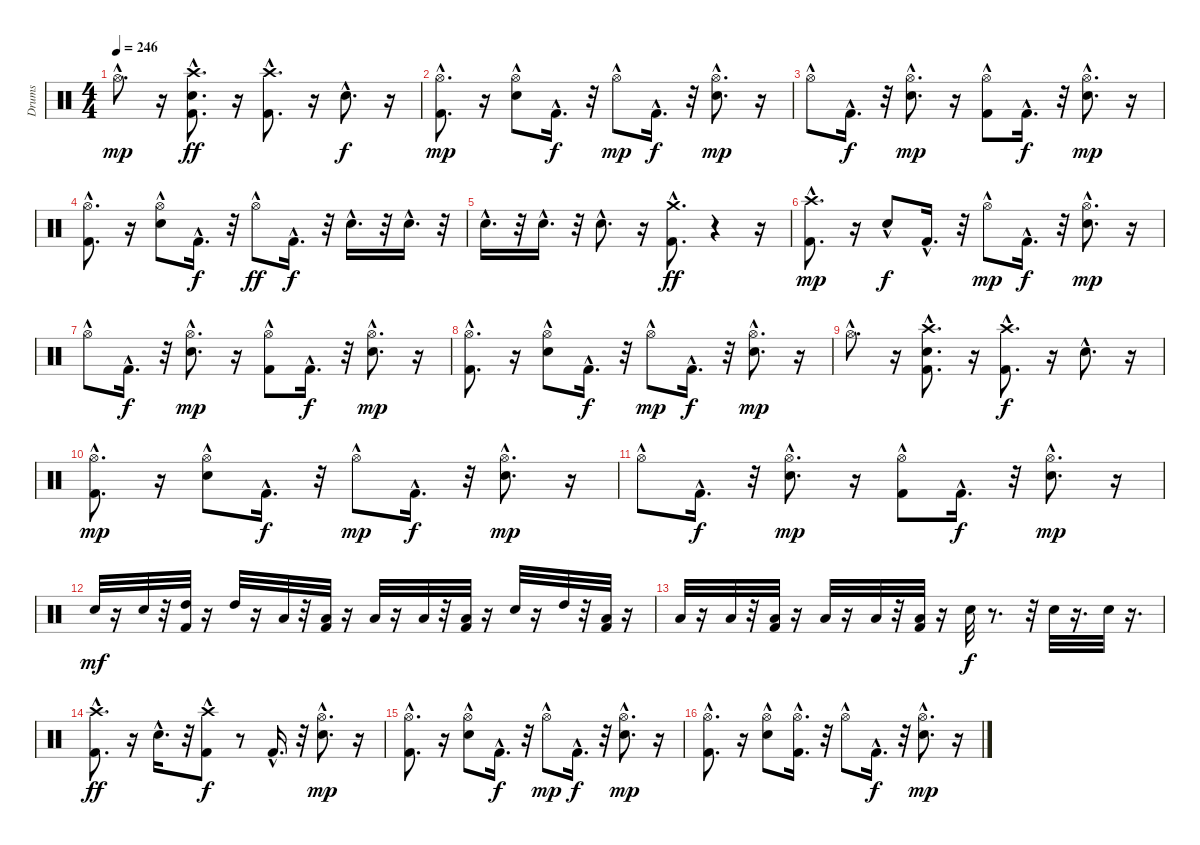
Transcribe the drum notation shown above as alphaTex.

\track ("Drums" "Drums") {instrument percussion}
\staff {score}
\articulation defaults
\ts (4 4)
\tempo 246
\clef neutral
\ks c "Hi-Hat (open)"{hac}.8{d dy mp}
r.16 ("Kick (hit) 2"{hac} "Electric Snare (hit)"{hac} "Crash high (hit)"{hac}).8{d dy ff} r.16 ("Kick (hit) 2"{hac} "Crash high (hit)"{hac}).8{d} r.16 "Electric Snare (hit)"{hac}.8{d dy f} r.16 |
("Kick (hit) 2"{hac} "Hi-Hat (open)"{hac}).8{d dy mp} r.16 ("Electric Snare (hit)"{hac} "Hi-Hat (open)"{hac}).8 "Kick (hit) 2"{hac}.16{d dy f} r.32 "Hi-Hat (open)"{hac}.8{dy mp} "Kick (hit) 2"{hac}.16{d dy f} r.32 ("Electric Snare (hit)"{hac} "Hi-Hat (open)"{hac}).8{d dy mp} r.16 |
"Hi-Hat (open)"{hac}.8 "Kick (hit) 2"{hac}.16{d dy f} r.32 ("Electric Snare (hit)"{hac} "Hi-Hat (open)"{hac}).8{d dy mp} r.16 ("Kick (hit) 2"{hac} "Hi-Hat (open)"{hac}).8 "Kick (hit) 2"{hac}.16{d dy f} r.32 ("Electric Snare (hit)"{hac} "Hi-Hat (open)"{hac}).8{d dy mp} r.16 |
("Kick (hit) 2"{hac} "Hi-Hat (open)"{hac}).8{d} r.16 ("Electric Snare (hit)"{hac} "Hi-Hat (open)"{hac}).8 "Kick (hit) 2"{hac}.16{d dy f} r.32 "Hi-Hat (open)"{hac}.8{dy ff} "Kick (hit) 2"{hac}.16{d dy f} r.32 "Electric Snare (hit)"{hac}.16{d} r.32 "Electric Snare (hit)"{hac}.16{d} r.32 |
"Electric Snare (hit)"{hac}.16{d} r.32 "Electric Snare (hit)"{hac}.16{d} r.32 "Electric Snare (hit)"{hac}.8{d} r.16 ("Kick (hit) 2"{hac} "Crash medium (hit)"{hac}).8{d dy ff} r.4 r.16 |
("Kick (hit) 2"{hac} "Crash high (hit)"{hac}).8{d dy mp} r.16 "Electric Snare (hit)"{hac}.8{dy f} "Kick (hit) 2"{hac}.16{d} r.32 "Hi-Hat (open)"{hac}.8{dy mp} "Kick (hit) 2"{hac}.16{d dy f} r.32 ("Electric Snare (hit)"{hac} "Hi-Hat (open)"{hac}).8{d dy mp} r.16 |
"Hi-Hat (open)"{hac}.8 "Kick (hit) 2"{hac}.16{d dy f} r.32 ("Electric Snare (hit)"{hac} "Hi-Hat (open)"{hac}).8{d dy mp} r.16 ("Kick (hit) 2"{hac} "Hi-Hat (open)"{hac}).8 "Kick (hit) 2"{hac}.16{d dy f} r.32 ("Electric Snare (hit)"{hac} "Hi-Hat (open)"{hac}).8{d dy mp} r.16 |
("Kick (hit) 2"{hac} "Hi-Hat (open)"{hac}).8{d} r.16 ("Electric Snare (hit)"{hac} "Hi-Hat (open)"{hac}).8 "Kick (hit) 2"{hac}.16{d dy f} r.32 "Hi-Hat (open)"{hac}.8{dy mp} "Kick (hit) 2"{hac}.16{d dy f} r.32 ("Electric Snare (hit)"{hac} "Hi-Hat (open)"{hac}).8{d dy mp} r.16 |
"Hi-Hat (open)"{hac}.8{d} r.16 ("Crash high (hit)"{hac} "Kick (hit) 2"{hac} "Electric Snare (hit)"{hac}).8{d} r.16 ("Crash high (hit)"{hac} "Kick (hit) 2"{hac}).8{d dy f} r.16 "Electric Snare (hit)"{hac}.8{d} r.16 |
("Kick (hit) 2"{hac} "Hi-Hat (open)"{hac}).8{d dy mp} r.16 ("Electric Snare (hit)"{hac} "Hi-Hat (open)"{hac}).8 "Kick (hit) 2"{hac}.16{d dy f} r.32 "Hi-Hat (open)"{hac}.8{dy mp} "Kick (hit) 2"{hac}.16{d dy f} r.32 ("Electric Snare (hit)"{hac} "Hi-Hat (open)"{hac}).8{d dy mp} r.16 |
"Hi-Hat (open)"{hac}.8 "Kick (hit) 2"{hac}.16{d dy f} r.32 ("Electric Snare (hit)"{hac} "Hi-Hat (open)"{hac}).8{d dy mp} r.16 ("Kick (hit) 2"{hac} "Hi-Hat (open)"{hac}).8 "Kick (hit) 2"{hac}.16{d dy f} r.32 ("Electric Snare (hit)"{hac} "Hi-Hat (open)"{hac}).8{d dy mp} r.16 |
"Electric Snare (hit)".32{dy mf} r.16 "Electric Snare (hit)".32 r.32 ("High Tom (hit)" "Kick (hit) 2").32 r.16 "High Tom (hit)".32 r.16 "Low Tom (hit)".32 r.32 ("Low Tom (hit)" "Kick (hit) 2").32 r.16 "Low Tom (hit)".32 r.16 "Low Tom (hit)".32 r.32 ("Low Tom (hit)" "Kick (hit) 2").32 r.16 "Electric Snare (hit)".32 r.16 "High Tom (hit)".32 r.32 ("Low Tom (hit)" "Kick (hit) 2").32 r.16 |
"Low Tom (hit)".32 r.16 "Low Tom (hit)".32 r.32 ("Low Tom (hit)" "Kick (hit) 2").32 r.16 "Low Tom (hit)".32 r.16 "Low Tom (hit)".32 r.32 ("Low Tom (hit)" "Kick (hit) 2").32 r.16 "Electric Snare (hit)".32{dy f} r.8{d} r.32 "Electric Snare (hit)".32 r.16{d} "Electric Snare (hit)".32 r.16{d} |
("Kick (hit) 2"{hac} "Crash high (hit)"{hac}).8{d dy ff} r.16 "Electric Snare (hit)"{hac}.16{d} r.32 ("Kick (hit) 2"{hac} "Crash high (hit)").8{dy f} r.8 "Kick (hit) 2"{hac}.16{d} r.32 ("Electric Snare (hit)"{hac} "Hi-Hat (open)"{hac}).8{d dy mp} r.16 |
("Kick (hit) 2"{hac} "Hi-Hat (open)"{hac}).8{d} r.16 ("Electric Snare (hit)"{hac} "Hi-Hat (open)"{hac}).8 "Kick (hit) 2"{hac}.16{d dy f} r.32 "Hi-Hat (open)"{hac}.8{dy mp} "Kick (hit) 2"{hac}.16{d dy f} r.32 ("Electric Snare (hit)"{hac} "Hi-Hat (open)"{hac}).8{d dy mp} r.16 |
("Kick (hit) 2"{hac} "Hi-Hat (open)"{hac}).8{d} r.16 ("Electric Snare (hit)"{hac} "Hi-Hat (open)"{hac}).8 ("Kick (hit) 2"{hac} "Hi-Hat (open)"{hac}).16{d} r.32 "Hi-Hat (open)"{hac}.8 "Kick (hit) 2"{hac}.16{d dy f} r.32 ("Electric Snare (hit)"{hac} "Hi-Hat (open)"{hac}).8{d dy mp} r.16
